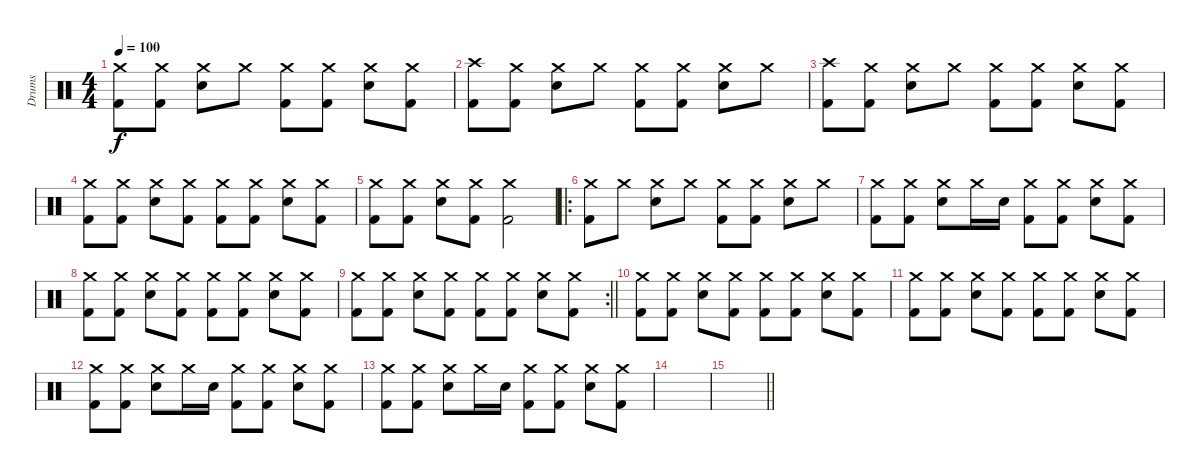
\track ("Drums" "Drums") {instrument percussion}
\staff {score}
\articulation defaults
\ts (4 4)
\tempo 100
\clef neutral
\ks c
("Crash medium (hit)" "Kick (hit) 2").8{dy f} ("Crash medium (hit)" "Kick (hit) 2").8 ("Crash medium (hit)" "Electric Snare (hit)").8 "Crash medium (hit)".8 ("Crash medium (hit)" "Kick (hit) 2").8 ("Crash medium (hit)" "Kick (hit) 2").8 ("Crash medium (hit)" "Electric Snare (hit)").8 ("Crash medium (hit)" "Kick (hit) 2").8 |
("Crash high (hit)" "Kick (hit) 2").8 ("Crash medium (hit)" "Kick (hit) 2").8 ("Crash medium (hit)" "Electric Snare (hit)").8 "Crash medium (hit)".8 ("Crash medium (hit)" "Kick (hit) 2").8 ("Crash medium (hit)" "Kick (hit) 2").8 ("Crash medium (hit)" "Electric Snare (hit)").8 "Crash medium (hit)".8 |
("Crash high (hit)" "Kick (hit) 2").8 ("Crash medium (hit)" "Kick (hit) 2").8 ("Crash medium (hit)" "Electric Snare (hit)").8 "Crash medium (hit)".8 ("Crash medium (hit)" "Kick (hit) 2").8 ("Crash medium (hit)" "Kick (hit) 2").8 ("Crash medium (hit)" "Electric Snare (hit)").8 ("Crash medium (hit)" "Kick (hit) 2").8 |
("Crash medium (hit)" "Kick (hit) 2").8 ("Crash medium (hit)" "Kick (hit) 2").8 ("Crash medium (hit)" "Electric Snare (hit)").8 ("Crash medium (hit)" "Kick (hit) 2").8 ("Crash medium (hit)" "Kick (hit) 2").8 ("Crash medium (hit)" "Kick (hit) 2").8 ("Crash medium (hit)" "Electric Snare (hit)").8 ("Crash medium (hit)" "Kick (hit) 2").8 |
("Crash medium (hit)" "Kick (hit) 2").8 ("Crash medium (hit)" "Kick (hit) 2").8 ("Crash medium (hit)" "Electric Snare (hit)").8 ("Crash medium (hit)" "Kick (hit) 2").8 ("Crash medium (hit)" "Kick (hit) 2").2 |
\ro
("Crash medium (hit)" "Kick (hit) 2").8 "Crash medium (hit)".8 ("Crash medium (hit)" "Electric Snare (hit)").8 "Crash medium (hit)".8 ("Crash medium (hit)" "Kick (hit) 2").8 ("Crash medium (hit)" "Kick (hit) 2").8 ("Crash medium (hit)" "Electric Snare (hit)").8 "Crash medium (hit)".8 |
("Crash medium (hit)" "Kick (hit) 2").8 ("Crash medium (hit)" "Kick (hit) 2").8 ("Crash medium (hit)" "Electric Snare (hit)").8 "Crash medium (hit)".16 "Electric Snare (hit)".16 ("Crash medium (hit)" "Kick (hit) 2").8 ("Crash medium (hit)" "Kick (hit) 2").8 ("Crash medium (hit)" "Electric Snare (hit)").8 ("Crash medium (hit)" "Kick (hit) 2").8 |
("Crash medium (hit)" "Kick (hit) 2").8 ("Crash medium (hit)" "Kick (hit) 2").8 ("Crash medium (hit)" "Electric Snare (hit)").8 ("Crash medium (hit)" "Kick (hit) 2").8 ("Crash medium (hit)" "Kick (hit) 2").8 ("Crash medium (hit)" "Kick (hit) 2").8 ("Crash medium (hit)" "Electric Snare (hit)").8 ("Crash medium (hit)" "Kick (hit) 2").8 |
\rc 2
\barLineRight lightlight
("Crash medium (hit)" "Kick (hit) 2").8 ("Crash medium (hit)" "Kick (hit) 2").8 ("Crash medium (hit)" "Electric Snare (hit)").8 ("Crash medium (hit)" "Kick (hit) 2").8 ("Crash medium (hit)" "Kick (hit) 2").8 ("Crash medium (hit)" "Kick (hit) 2").8 ("Crash medium (hit)" "Electric Snare (hit)").8 ("Crash medium (hit)" "Kick (hit) 2").8 |
("Crash medium (hit)" "Kick (hit) 2").8 ("Crash medium (hit)" "Kick (hit) 2").8 ("Crash medium (hit)" "Electric Snare (hit)").8 ("Crash medium (hit)" "Kick (hit) 2").8 ("Crash medium (hit)" "Kick (hit) 2").8 ("Crash medium (hit)" "Kick (hit) 2").8 ("Crash medium (hit)" "Electric Snare (hit)").8 ("Crash medium (hit)" "Kick (hit) 2").8 |
("Crash medium (hit)" "Kick (hit) 2").8 ("Crash medium (hit)" "Kick (hit) 2").8 ("Crash medium (hit)" "Electric Snare (hit)").8 ("Crash medium (hit)" "Kick (hit) 2").8 ("Crash medium (hit)" "Kick (hit) 2").8 ("Crash medium (hit)" "Kick (hit) 2").8 ("Crash medium (hit)" "Electric Snare (hit)").8 ("Crash medium (hit)" "Kick (hit) 2").8 |
("Crash medium (hit)" "Kick (hit) 2").8 ("Crash medium (hit)" "Kick (hit) 2").8 ("Crash medium (hit)" "Electric Snare (hit)").8 "Crash medium (hit)".16 "Electric Snare (hit)".16 ("Crash medium (hit)" "Kick (hit) 2").8 ("Crash medium (hit)" "Kick (hit) 2").8 ("Crash medium (hit)" "Electric Snare (hit)").8 ("Crash medium (hit)" "Kick (hit) 2").8 |
("Crash medium (hit)" "Kick (hit) 2").8 ("Crash medium (hit)" "Kick (hit) 2").8 ("Crash medium (hit)" "Electric Snare (hit)").8 "Crash medium (hit)".16 "Electric Snare (hit)".16 ("Crash medium (hit)" "Kick (hit) 2").8 ("Crash medium (hit)" "Kick (hit) 2").8 ("Crash medium (hit)" "Electric Snare (hit)").8 ("Crash medium (hit)" "Kick (hit) 2").8 |
|
\barLineRight lightlight
